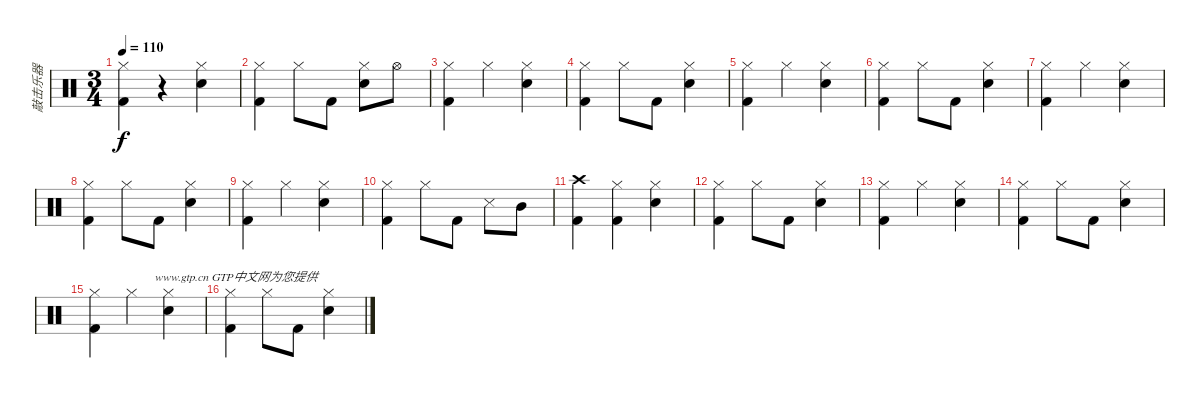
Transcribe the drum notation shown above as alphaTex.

\track ("敲击乐器" "敲击乐器") {instrument percussion}
\staff {score}
\articulation defaults
\ts (3 4)
\tempo 110
\clef neutral
\ks c
("Hi-Hat (closed)" "Kick (hit) 2").4{dy f} r.4 ("Hi-Hat (closed)" "Electric Snare (hit)").4 |
("Hi-Hat (closed)" "Kick (hit) 2").4 "Hi-Hat (closed)".8 "Kick (hit) 2".8 ("Hi-Hat (closed)" "Electric Snare (hit)").8 "Hi-Hat (open)".8 |
("Hi-Hat (closed)" "Kick (hit) 2").4 "Hi-Hat (closed)".4 ("Hi-Hat (closed)" "Electric Snare (hit)").4 |
("Hi-Hat (closed)" "Kick (hit) 2").4 "Hi-Hat (closed)".8 "Kick (hit) 2".8 ("Hi-Hat (closed)" "Electric Snare (hit)").4 |
("Hi-Hat (closed)" "Kick (hit) 2").4 "Hi-Hat (closed)".4 ("Hi-Hat (closed)" "Electric Snare (hit)").4 |
("Hi-Hat (closed)" "Kick (hit) 2").4 "Hi-Hat (closed)".8 "Kick (hit) 2".8 ("Hi-Hat (closed)" "Electric Snare (hit)").4 |
("Hi-Hat (closed)" "Kick (hit) 2").4 "Hi-Hat (closed)".4 ("Hi-Hat (closed)" "Electric Snare (hit)").4 |
("Hi-Hat (closed)" "Kick (hit) 2").4 "Hi-Hat (closed)".8 "Kick (hit) 2".8 ("Hi-Hat (closed)" "Electric Snare (hit)").4 |
("Hi-Hat (closed)" "Kick (hit) 2").4 "Hi-Hat (closed)".4 ("Hi-Hat (closed)" "Electric Snare (hit)").4 |
("Hi-Hat (closed)" "Kick (hit) 2").4 "Hi-Hat (closed)".8 "Kick (hit) 2".8 "Snare (side stick) 3".8 "Mid Tom (hit)".8 |
("Crash high (hit)" "Kick (hit) 2").4 ("Hi-Hat (closed)" "Kick (hit) 2").4 ("Hi-Hat (closed)" "Electric Snare (hit)").4 |
("Hi-Hat (closed)" "Kick (hit) 2").4 "Hi-Hat (closed)".8 "Kick (hit) 2".8 ("Hi-Hat (closed)" "Electric Snare (hit)").4 |
("Hi-Hat (closed)" "Kick (hit) 2").4 "Hi-Hat (closed)".4 ("Hi-Hat (closed)" "Electric Snare (hit)").4 |
("Hi-Hat (closed)" "Kick (hit) 2").4 "Hi-Hat (closed)".8 "Kick (hit) 2".8 ("Hi-Hat (closed)" "Electric Snare (hit)").4 |
("Hi-Hat (closed)" "Kick (hit) 2").4{txt "                    www.gtp.cn GTP中文网为您提供"} "Hi-Hat (closed)".4 ("Hi-Hat (closed)" "Electric Snare (hit)").4 |
("Hi-Hat (closed)" "Kick (hit) 2").4 "Hi-Hat (closed)".8 "Kick (hit) 2".8 ("Hi-Hat (closed)" "Electric Snare (hit)").4
